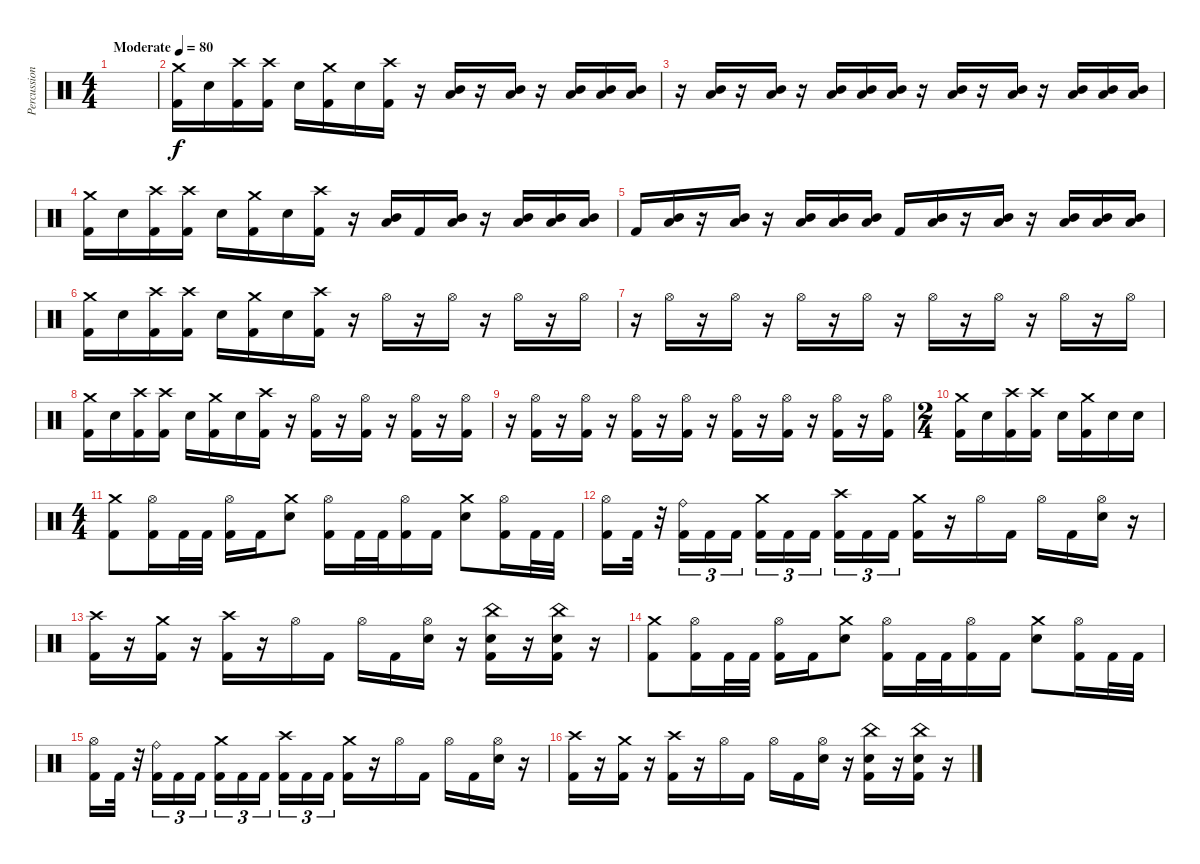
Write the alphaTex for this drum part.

\track ("Percussion" "Percussion") {instrument percussion}
\staff {score}
\articulation defaults
\ts (4 4)
\tempo (80 "Moderate")
\clef neutral
\ks c
|
("Crash medium (hit)" "Kick (hit) 2").16 "Electric Snare (hit)".16 ("Kick (hit) 2" "Crash high (hit)").16 ("Kick (hit) 2" "Crash high (hit)").16 "Electric Snare (hit)".16 ("Kick (hit) 2" "Crash medium (hit)").16 "Electric Snare (hit)".16 ("Kick (hit) 2" "Crash high (hit)").16 r.16 ("Low Floor Tom (hit)" "Mid Tom (hit)").16 r.16 ("Low Floor Tom (hit)" "Mid Tom (hit)").16 r.16 ("Low Floor Tom (hit)" "Mid Tom (hit)").16 ("Low Floor Tom (hit)" "Mid Tom (hit)").16 ("Low Floor Tom (hit)" "Mid Tom (hit)").16 |
r.16 ("Low Floor Tom (hit)" "Mid Tom (hit)").16 r.16 ("Low Floor Tom (hit)" "Mid Tom (hit)").16 r.16 ("Low Floor Tom (hit)" "Mid Tom (hit)").16 ("Low Floor Tom (hit)" "Mid Tom (hit)").16 ("Low Floor Tom (hit)" "Mid Tom (hit)").16 r.16 ("Mid Tom (hit)" "Low Floor Tom (hit)").16 r.16 ("Mid Tom (hit)" "Low Floor Tom (hit)").16 r.16 ("Mid Tom (hit)" "Low Floor Tom (hit)").16 ("Mid Tom (hit)" "Low Floor Tom (hit)").16 ("Mid Tom (hit)" "Low Floor Tom (hit)").16 |
("Crash medium (hit)" "Kick (hit) 2").16 "Electric Snare (hit)".16 ("Kick (hit) 2" "Crash high (hit)").16 ("Kick (hit) 2" "Crash high (hit)").16 "Electric Snare (hit)".16 ("Kick (hit) 2" "Crash medium (hit)").16 "Electric Snare (hit)".16 ("Kick (hit) 2" "Crash high (hit)").16 r.16 ("Low Floor Tom (hit)" "Mid Tom (hit)").16 "Kick (hit) 2".16 ("Low Floor Tom (hit)" "Mid Tom (hit)").16 r.16 ("Low Floor Tom (hit)" "Mid Tom (hit)").16 ("Low Floor Tom (hit)" "Mid Tom (hit)").16 ("Low Floor Tom (hit)" "Mid Tom (hit)").16 |
"Kick (hit) 2".16 ("Low Floor Tom (hit)" "Mid Tom (hit)").16 r.16 ("Low Floor Tom (hit)" "Mid Tom (hit)").16 r.16 ("Low Floor Tom (hit)" "Mid Tom (hit)").16 ("Low Floor Tom (hit)" "Mid Tom (hit)").16 ("Low Floor Tom (hit)" "Mid Tom (hit)").16 "Kick (hit) 2".16 ("Mid Tom (hit)" "Low Floor Tom (hit)").16 r.16 ("Mid Tom (hit)" "Low Floor Tom (hit)").16 r.16 ("Mid Tom (hit)" "Low Floor Tom (hit)").16 ("Mid Tom (hit)" "Low Floor Tom (hit)").16 ("Mid Tom (hit)" "Low Floor Tom (hit)").16 |
("Crash medium (hit)" "Kick (hit) 2").16 "Electric Snare (hit)".16 ("Kick (hit) 2" "Crash high (hit)").16 ("Kick (hit) 2" "Crash high (hit)").16 "Electric Snare (hit)".16 ("Kick (hit) 2" "Crash medium (hit)").16 "Electric Snare (hit)".16 ("Kick (hit) 2" "Crash high (hit)").16 r.16 "Hi-Hat (open)".16 r.16 "Hi-Hat (open)".16 r.16 "Hi-Hat (open)".16 r.16 "Hi-Hat (open)".16 |
r.16 "Hi-Hat (open)".16 r.16 "Hi-Hat (open)".16 r.16 "Hi-Hat (open)".16 r.16 "Hi-Hat (open)".16 r.16 "Hi-Hat (open)".16 r.16 "Hi-Hat (open)".16 r.16 "Hi-Hat (open)".16 r.16 "Hi-Hat (open)".16 |
("Crash medium (hit)" "Kick (hit) 2").16 "Electric Snare (hit)".16 ("Kick (hit) 2" "Crash high (hit)").16 ("Kick (hit) 2" "Crash high (hit)").16 "Electric Snare (hit)".16 ("Kick (hit) 2" "Crash medium (hit)").16 "Electric Snare (hit)".16 ("Kick (hit) 2" "Crash high (hit)").16 r.16 ("Hi-Hat (open)" "Kick (hit) 2").16 r.16 ("Hi-Hat (open)" "Kick (hit) 2").16 r.16 ("Hi-Hat (open)" "Kick (hit) 2").16 r.16 ("Hi-Hat (open)" "Kick (hit) 2").16 |
r.16 ("Hi-Hat (open)" "Kick (hit) 2").16 r.16 ("Hi-Hat (open)" "Kick (hit) 2").16 r.16 ("Hi-Hat (open)" "Kick (hit) 2").16 r.16 ("Hi-Hat (open)" "Kick (hit) 2").16 r.16 ("Hi-Hat (open)" "Kick (hit) 2").16 r.16 ("Hi-Hat (open)" "Kick (hit) 2").16 r.16 ("Hi-Hat (open)" "Kick (hit) 2").16 r.16 ("Hi-Hat (open)" "Kick (hit) 2").16 |
\ts (2 4)
("Crash medium (hit)" "Kick (hit) 2").16 "Electric Snare (hit)".16 ("Kick (hit) 2" "Crash high (hit)").16 ("Kick (hit) 2" "Crash high (hit)").16 "Electric Snare (hit)".16 ("Kick (hit) 2" "Crash medium (hit)").16 "Electric Snare (hit)".16 "Electric Snare (hit)".16 |
\ts (4 4)
("Kick (hit) 2" "Crash medium (hit)").8 ("Kick (hit) 2" "Hi-Hat (open)").16 "Kick (hit) 2".32 "Kick (hit) 2".32 ("Kick (hit) 2" "Hi-Hat (open)").16 "Kick (hit) 2".16 ("Electric Snare (hit)" "Crash medium (hit)").8 ("Kick (hit) 2" "Hi-Hat (open)").16 "Kick (hit) 2".32 "Kick (hit) 2".32 ("Kick (hit) 2" "Hi-Hat (open)").16 "Kick (hit) 2".16 ("Electric Snare (hit)" "Crash medium (hit)").8 ("Kick (hit) 2" "Hi-Hat (open)").16 "Kick (hit) 2".32 "Kick (hit) 2".32 |
("Kick (hit) 2" "Hi-Hat (open)").16 "Kick (hit) 2".32 r.32 ("Kick (hit) 2" "Ride (bell)").16{tu (3 2)} "Kick (hit) 2".16{tu (3 2)} "Kick (hit) 2".16{tu (3 2)} ("Kick (hit) 2" "Crash medium (hit)").16{tu (3 2)} "Kick (hit) 2".16{tu (3 2)} "Kick (hit) 2".16{tu (3 2) beam splitsecondary} ("Kick (hit) 2" "Crash high (hit)").16{tu (3 2)} "Kick (hit) 2".16{tu (3 2)} "Kick (hit) 2".16{tu (3 2)} ("Kick (hit) 2" "Crash medium (hit)").16 r.16 "Hi-Hat (open)".16 "Kick (hit) 2".16 "Hi-Hat (open)".16 "Kick (hit) 2".16 ("Electric Snare (hit)" "Hi-Hat (open)").16 r.16 |
("Kick (hit) 2" "Crash high (hit)").16 r.16 ("Kick (hit) 2" "Crash medium (hit)").16 r.16 ("Kick (hit) 2" "Crash high (hit)").16 r.16 "Hi-Hat (open)".16 "Kick (hit) 2".16 "Hi-Hat (open)".16 "Kick (hit) 2".16 ("Electric Snare (hit)" "Hi-Hat (open)").16 r.16 ("Kick (hit) 2" "Electric Snare (hit)" "China (hit)").16 r.16 ("Kick (hit) 2" "Electric Snare (hit)" "China (hit)").16 r.16 |
("Kick (hit) 2" "Crash medium (hit)").8 ("Kick (hit) 2" "Hi-Hat (open)").16 "Kick (hit) 2".32 "Kick (hit) 2".32 ("Kick (hit) 2" "Hi-Hat (open)").16 "Kick (hit) 2".16 ("Electric Snare (hit)" "Crash medium (hit)").8 ("Kick (hit) 2" "Hi-Hat (open)").16 "Kick (hit) 2".32 "Kick (hit) 2".32 ("Kick (hit) 2" "Hi-Hat (open)").16 "Kick (hit) 2".16 ("Electric Snare (hit)" "Crash medium (hit)").8 ("Kick (hit) 2" "Hi-Hat (open)").16 "Kick (hit) 2".32 "Kick (hit) 2".32 |
("Kick (hit) 2" "Hi-Hat (open)").16 "Kick (hit) 2".32 r.32 ("Kick (hit) 2" "Ride (bell)").16{tu (3 2)} "Kick (hit) 2".16{tu (3 2)} "Kick (hit) 2".16{tu (3 2)} ("Kick (hit) 2" "Crash medium (hit)").16{tu (3 2)} "Kick (hit) 2".16{tu (3 2)} "Kick (hit) 2".16{tu (3 2) beam splitsecondary} ("Kick (hit) 2" "Crash high (hit)").16{tu (3 2)} "Kick (hit) 2".16{tu (3 2)} "Kick (hit) 2".16{tu (3 2)} ("Kick (hit) 2" "Crash medium (hit)").16 r.16 "Hi-Hat (open)".16 "Kick (hit) 2".16 "Hi-Hat (open)".16 "Kick (hit) 2".16 ("Electric Snare (hit)" "Hi-Hat (open)").16 r.16 |
("Kick (hit) 2" "Crash high (hit)").16 r.16 ("Kick (hit) 2" "Crash medium (hit)").16 r.16 ("Kick (hit) 2" "Crash high (hit)").16 r.16 "Hi-Hat (open)".16 "Kick (hit) 2".16 "Hi-Hat (open)".16 "Kick (hit) 2".16 ("Electric Snare (hit)" "Hi-Hat (open)").16 r.16 ("Kick (hit) 2" "Electric Snare (hit)" "China (hit)").16 r.16 ("Kick (hit) 2" "Electric Snare (hit)" "China (hit)").16 r.16
